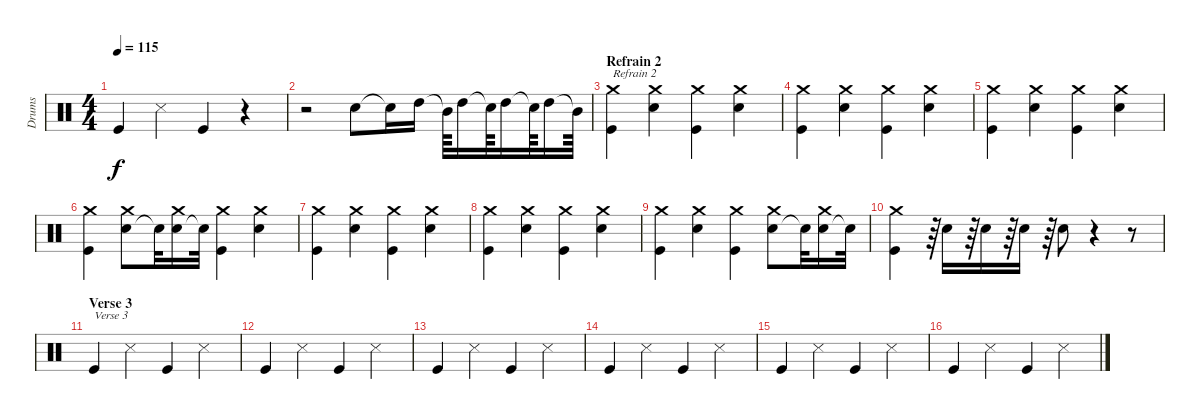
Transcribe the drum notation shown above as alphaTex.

\track ("Drums" "Drums") {instrument percussion}
\staff {score}
\articulation defaults
\ts (4 4)
\tempo 115
\clef neutral
\ks c "Kick (hit)".4{dy f} "Snare (side stick) 3".4 "Kick (hit)".4
r.4 |
r.2 "Snare (hit) 2".8 "Snare (hit)"{t}.16 "High Tom (hit)".16 "Mid Tom (hit)"{t}.64 "High Tom (hit)".16 "Snare (hit)"{t}.64 "High Tom (hit)".16 "Snare (hit)"{t}.64 "High Tom (hit)".16 "Mid Tom (hit)"{t}.64 |
\section ("" "Refrain 2")
("Kick (hit)" "Crash medium (hit)").4{txt "Refrain 2"} ("Snare (hit) 2" "Crash medium (hit)").4 ("Kick (hit)" "Crash medium (hit)").4 ("Snare (hit) 2" "Crash medium (hit)").4 |
("Kick (hit)" "Crash medium (hit)").4 ("Snare (hit) 2" "Crash medium (hit)").4 ("Kick (hit)" "Crash medium (hit)").4 ("Snare (hit) 2" "Crash medium (hit)").4 |
("Kick (hit)" "Crash medium (hit)").4 ("Snare (hit) 2" "Crash medium (hit)").4 ("Kick (hit)" "Crash medium (hit)").4 ("Snare (hit) 2" "Crash medium (hit)").4 |
("Kick (hit)" "Crash medium (hit)").4 ("Snare (hit) 2" "Crash medium (hit)").8 "Snare (hit)"{t}.32 ("Snare (hit) 2" "Crash medium (hit)").16 "Snare (hit)"{t}.32 ("Kick (hit)" "Crash medium (hit)").4 ("Snare (hit) 2" "Crash medium (hit)").4 |
("Kick (hit)" "Crash medium (hit)").4 ("Snare (hit) 2" "Crash medium (hit)").4 ("Kick (hit)" "Crash medium (hit)").4 ("Snare (hit) 2" "Crash medium (hit)").4 |
("Kick (hit)" "Crash medium (hit)").4 ("Snare (hit) 2" "Crash medium (hit)").4 ("Kick (hit)" "Crash medium (hit)").4 ("Snare (hit) 2" "Crash medium (hit)").4 |
("Kick (hit)" "Crash medium (hit)").4 ("Snare (hit) 2" "Crash medium (hit)").4 ("Kick (hit)" "Crash medium (hit)").4 ("Snare (hit) 2" "Crash medium (hit)").8 "Snare (hit)"{t}.32 ("Snare (hit) 2" "Crash medium (hit)").16 "Snare (hit) 2"{t}.32 |
("Kick (hit)" "Crash medium (hit)").4 r.64 "Snare (hit) 2".16 r.64 "Snare (hit) 2".16 r.64 "Snare (hit) 2".16 r.64 "Snare (hit) 2".8 r.4 r.8 |
\section ("" "Verse 3")
"Kick (hit)".4{txt "Verse 3"} "Snare (side stick) 3".4 "Kick (hit)".4 "Snare (side stick) 3".4 |
"Kick (hit)".4 "Snare (side stick) 3".4 "Kick (hit)".4 "Snare (side stick) 3".4 |
"Kick (hit)".4 "Snare (side stick) 3".4 "Kick (hit)".4 "Snare (side stick) 3".4 |
"Kick (hit)".4 "Snare (side stick) 3".4 "Kick (hit)".4 "Snare (side stick) 3".4 |
"Kick (hit)".4 "Snare (side stick) 3".4 "Kick (hit)".4 "Snare (side stick) 3".4 |
"Kick (hit)".4 "Snare (side stick) 3".4 "Kick (hit)".4 "Snare (side stick) 3".4
